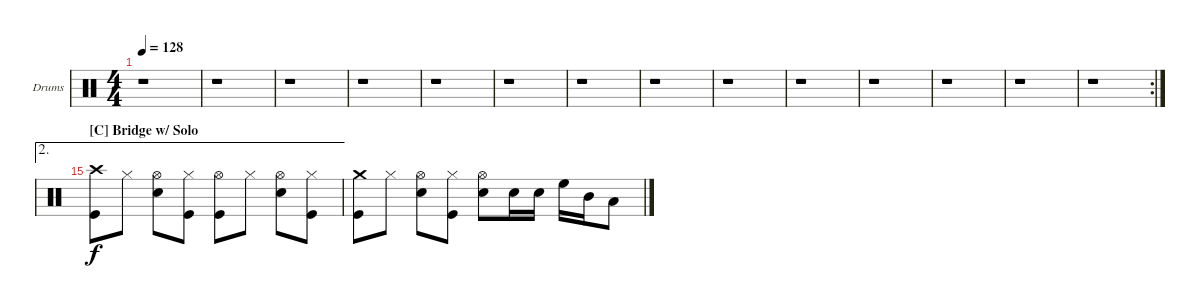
\bracketExtendMode nobrackets
\firstSystemTrackNameOrientation horizontal
\otherSystemsTrackNameOrientation horizontal
\defaultBarNumberDisplay FirstOfSystem
\track ("Drumkit" "Drums") {instrument percussion}
\staff {score}
\articulation defaults
\ts (4 4)
\tempo 128
\clef neutral
\ks c
r.1{dy f} |
r.1 |
r.1 |
r.1 |
r.1 |
r.1 |
r.1 |
r.1 |
r.1 |
r.1 |
r.1 |
r.1 |
r.1 |
\rc 2
r.1 |
\ae 2
\section ("C" "Bridge w/ Solo")
\scale
0.243697 ("Kick (hit)" "Crash high (hit)").8 "Hi-Hat (closed)".8 ("Hi-Hat (open)" "Snare (hit) 2").8 ("Hi-Hat (closed)" "Kick (hit)").8 ("Hi-Hat (open)" "Kick (hit)").8 "Hi-Hat (closed)".8 ("Snare (hit) 2" "Hi-Hat (open)").8 ("Kick (hit)" "Hi-Hat (closed)").8 |
\scale
0.243697 ("Kick (hit)" "Crash medium (hit)").8 "Hi-Hat (closed)".8 ("Hi-Hat (open)" "Snare (hit) 2").8 ("Hi-Hat (closed)" "Kick (hit)").8 ("Hi-Hat (open)" "Snare (hit) 2").8 "Snare (hit) 2".16 "Snare (hit) 2".16 "High Floor Tom (hit)".16 "Mid Tom (hit)".16 "Low Tom (hit)".8
